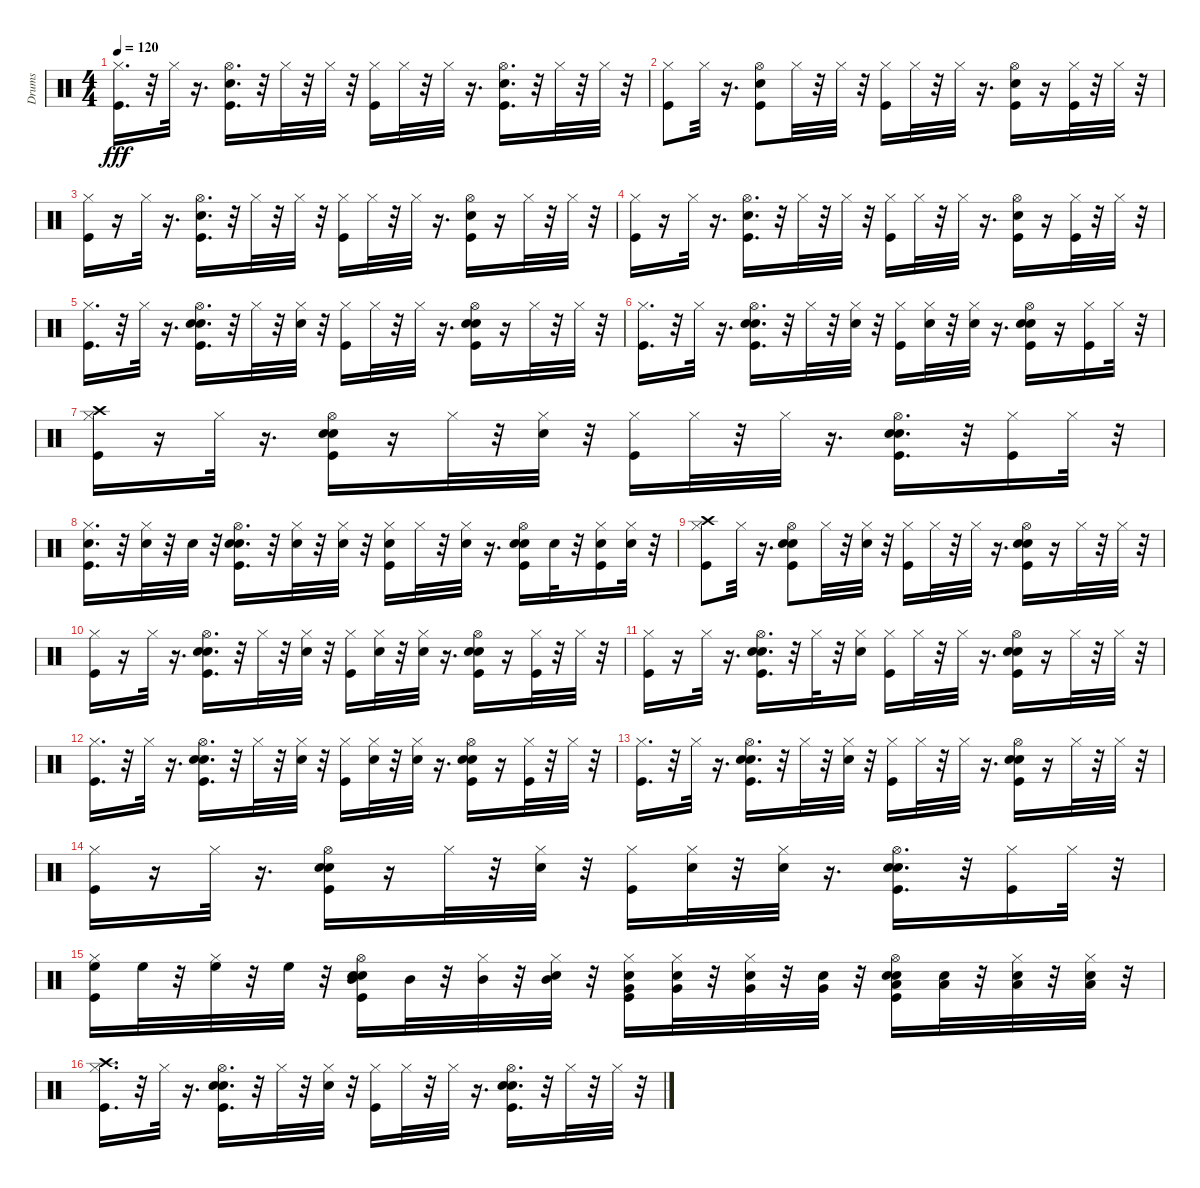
\track ("Drums" "Drums") {instrument percussion}
\staff {score}
\articulation defaults
\ts (4 4)
\tempo 120
\clef neutral
\ks c
("Hi-Hat (closed)" "Kick (hit)").16{d dy fff} r.32 "Hi-Hat (closed)".32 r.16{d} ("Hi-Hat (open)" "Kick (hit)" "Hand Clap (hit)").16{d} r.32 "Hi-Hat (closed)".32 r.32 "Hi-Hat (closed)".32 r.32 ("Hi-Hat (closed)" "Kick (hit)").16 "Hi-Hat (closed)".32 r.32 "Hi-Hat (closed)".32 r.16{d} ("Hi-Hat (open)" "Kick (hit)" "Hand Clap (hit)").16{d} r.32 "Hi-Hat (closed)".32 r.32 "Hi-Hat (closed)".32 r.32 |
("Hi-Hat (closed)" "Kick (hit)").8 "Hi-Hat (closed)".32 r.16{d} ("Hi-Hat (open)" "Kick (hit)" "Hand Clap (hit)").8 "Hi-Hat (closed)".32 r.32 "Hi-Hat (closed)".32 r.32 ("Hi-Hat (closed)" "Kick (hit)").16 "Hi-Hat (closed)".32 r.32 "Hi-Hat (closed)".32 r.16{d} ("Hi-Hat (open)" "Kick (hit)" "Hand Clap (hit)").16 r.16 ("Hi-Hat (closed)" "Kick (hit)").32 r.32 "Hi-Hat (closed)".32 r.32 |
("Hi-Hat (closed)" "Kick (hit)").16 r.16 "Hi-Hat (closed)".32 r.16{d} ("Hi-Hat (open)" "Kick (hit)" "Hand Clap (hit)").16{d} r.32 "Hi-Hat (closed)".32 r.32 "Hi-Hat (closed)".32 r.32 ("Hi-Hat (closed)" "Kick (hit)").16 "Hi-Hat (closed)".32 r.32 "Hi-Hat (closed)".32 r.16{d} ("Hi-Hat (open)" "Kick (hit)" "Hand Clap (hit)").16 r.16 "Hi-Hat (closed)".32 r.32 "Hi-Hat (closed)".32 r.32 |
("Hi-Hat (closed)" "Kick (hit)").16 r.16 "Hi-Hat (closed)".32 r.16{d} ("Hi-Hat (open)" "Kick (hit)" "Hand Clap (hit)").16{d} r.32 "Hi-Hat (closed)".32 r.32 "Hi-Hat (closed)".32 r.32 ("Hi-Hat (closed)" "Kick (hit)").16 "Hi-Hat (closed)".32 r.32 "Hi-Hat (closed)".32 r.16{d} ("Hi-Hat (open)" "Kick (hit)" "Hand Clap (hit)").16 r.16 ("Hi-Hat (closed)" "Kick (hit)").32 r.32 "Hi-Hat (closed)".32 r.32 |
("Hi-Hat (closed)" "Kick (hit)").16{d} r.32 "Hi-Hat (closed)".32 r.16{d} ("Hi-Hat (open)" "Kick (hit)" "Hand Clap (hit)" "Electric Snare (hit)").16{d} r.32 "Hi-Hat (closed)".32 r.32 ("Hi-Hat (closed)" "Electric Snare (hit)").32 r.32 ("Hi-Hat (closed)" "Kick (hit)").16 "Hi-Hat (closed)".32 r.32 "Hi-Hat (closed)".32 r.16{d} ("Hi-Hat (open)" "Kick (hit)" "Hand Clap (hit)" "Electric Snare (hit)").16 r.16 "Hi-Hat (closed)".32 r.32 "Hi-Hat (closed)".32 r.32 |
("Hi-Hat (closed)" "Kick (hit)").16{d} r.32 "Hi-Hat (closed)".32 r.16{d} ("Hi-Hat (open)" "Kick (hit)" "Hand Clap (hit)" "Electric Snare (hit)").16{d} r.32 "Hi-Hat (closed)".32 r.32 ("Hi-Hat (closed)" "Electric Snare (hit)").32 r.32 ("Hi-Hat (closed)" "Kick (hit)").16 ("Hi-Hat (closed)" "Electric Snare (hit)").32 r.32 ("Hi-Hat (closed)" "Electric Snare (hit)").32 r.16{d} ("Hi-Hat (open)" "Kick (hit)" "Hand Clap (hit)" "Electric Snare (hit)").16 r.16 ("Hi-Hat (closed)" "Kick (hit)").16 "Hi-Hat (closed)".32 r.32 |
("Hi-Hat (closed)" "Kick (hit)" "Crash high (hit)").16 r.16 "Hi-Hat (closed)".32 r.16{d} ("Hi-Hat (open)" "Kick (hit)" "Hand Clap (hit)" "Electric Snare (hit)").16 r.16 "Hi-Hat (closed)".32 r.32 ("Hi-Hat (closed)" "Electric Snare (hit)").32 r.32 ("Hi-Hat (closed)" "Kick (hit)").16 "Hi-Hat (closed)".32 r.32 "Hi-Hat (closed)".32 r.16{d} ("Hi-Hat (open)" "Kick (hit)" "Hand Clap (hit)" "Electric Snare (hit)").16{d} r.32 ("Hi-Hat (closed)" "Kick (hit)").16 "Hi-Hat (closed)".32 r.32 |
("Hi-Hat (closed)" "Kick (hit)" "Electric Snare (hit)").16{d} r.32 ("Hi-Hat (closed)" "Electric Snare (hit)").32 r.32 "Electric Snare (hit)".32 r.32 ("Hi-Hat (open)" "Kick (hit)" "Hand Clap (hit)" "Electric Snare (hit)").16{d} r.32 ("Hi-Hat (closed)" "Electric Snare (hit)").32 r.32 ("Hi-Hat (closed)" "Electric Snare (hit)").32 r.32 ("Hi-Hat (closed)" "Kick (hit)" "Electric Snare (hit)").16 "Hi-Hat (closed)".32 r.32 ("Hi-Hat (closed)" "Electric Snare (hit)").32 r.16{d} ("Hi-Hat (open)" "Kick (hit)" "Hand Clap (hit)" "Electric Snare (hit)").16 "Electric Snare (hit)".32 r.32 ("Hi-Hat (closed)" "Kick (hit)" "Electric Snare (hit)").16 ("Hi-Hat (closed)" "Electric Snare (hit)").32 r.32 |
("Hi-Hat (closed)" "Kick (hit)" "Crash high (hit)").8 "Hi-Hat (closed)".32 r.16{d} ("Hi-Hat (open)" "Kick (hit)" "Hand Clap (hit)" "Electric Snare (hit)").8 "Hi-Hat (closed)".32 r.32 ("Hi-Hat (closed)" "Electric Snare (hit)").32 r.32 ("Hi-Hat (closed)" "Kick (hit)").16 "Hi-Hat (closed)".32 r.32 "Hi-Hat (closed)".32 r.16{d} ("Hi-Hat (open)" "Kick (hit)" "Hand Clap (hit)" "Electric Snare (hit)").16 r.16 "Hi-Hat (closed)".32 r.32 "Hi-Hat (closed)".32 r.32 |
("Hi-Hat (closed)" "Kick (hit)").16 r.16 "Hi-Hat (closed)".32 r.16{d} ("Hi-Hat (open)" "Kick (hit)" "Hand Clap (hit)" "Electric Snare (hit)").16{d} r.32 "Hi-Hat (closed)".32 r.32 ("Hi-Hat (closed)" "Electric Snare (hit)").32 r.32 ("Hi-Hat (closed)" "Kick (hit)").16 ("Hi-Hat (closed)" "Electric Snare (hit)").32 r.32 ("Hi-Hat (closed)" "Electric Snare (hit)").32 r.16{d} ("Hi-Hat (open)" "Kick (hit)" "Hand Clap (hit)" "Electric Snare (hit)").16 r.16 ("Hi-Hat (closed)" "Kick (hit)").32 r.32 "Hi-Hat (closed)".32 r.32 |
("Hi-Hat (closed)" "Kick (hit)").16 r.16 "Hi-Hat (closed)".32 r.16{d} ("Hi-Hat (open)" "Kick (hit)" "Hand Clap (hit)" "Electric Snare (hit)").16{d} r.32 "Hi-Hat (closed)".32 r.32 ("Hi-Hat (closed)" "Electric Snare (hit)").16 ("Hi-Hat (closed)" "Kick (hit)").16 "Hi-Hat (closed)".32 r.32 "Hi-Hat (closed)".32 r.16{d} ("Hi-Hat (open)" "Kick (hit)" "Hand Clap (hit)" "Electric Snare (hit)").16 r.16 "Hi-Hat (closed)".32 r.32 "Hi-Hat (closed)".32 r.32 |
("Hi-Hat (closed)" "Kick (hit)").16{d} r.32 "Hi-Hat (closed)".32 r.16{d} ("Hi-Hat (open)" "Kick (hit)" "Hand Clap (hit)" "Electric Snare (hit)").16{d} r.32 "Hi-Hat (closed)".32 r.32 ("Hi-Hat (closed)" "Electric Snare (hit)").32 r.32 ("Hi-Hat (closed)" "Kick (hit)").16 ("Hi-Hat (closed)" "Electric Snare (hit)").32 r.32 ("Hi-Hat (closed)" "Electric Snare (hit)").32 r.16{d} ("Hi-Hat (open)" "Kick (hit)" "Hand Clap (hit)" "Electric Snare (hit)").16 r.16 ("Hi-Hat (closed)" "Kick (hit)").32 r.32 "Hi-Hat (closed)".32 r.32 |
("Hi-Hat (closed)" "Kick (hit)").16{d} r.32 "Hi-Hat (closed)".32 r.16{d} ("Hi-Hat (open)" "Kick (hit)" "Hand Clap (hit)" "Electric Snare (hit)").16{d} r.32 "Hi-Hat (closed)".32 r.32 ("Hi-Hat (closed)" "Electric Snare (hit)").32 r.32 ("Hi-Hat (closed)" "Kick (hit)").16 "Hi-Hat (closed)".32 r.32 "Hi-Hat (closed)".32 r.16{d} ("Hi-Hat (open)" "Kick (hit)" "Hand Clap (hit)" "Electric Snare (hit)").16 r.16 "Hi-Hat (closed)".32 r.32 "Hi-Hat (closed)".32 r.32 |
("Hi-Hat (closed)" "Kick (hit)").16 r.16 "Hi-Hat (closed)".32 r.16{d} ("Hi-Hat (open)" "Kick (hit)" "Hand Clap (hit)" "Electric Snare (hit)").16 r.16 "Hi-Hat (closed)".32 r.32 ("Hi-Hat (closed)" "Electric Snare (hit)").32 r.32 ("Hi-Hat (closed)" "Kick (hit)").16 ("Hi-Hat (closed)" "Electric Snare (hit)").32 r.32 ("Hi-Hat (closed)" "Electric Snare (hit)").32 r.16{d} ("Hi-Hat (open)" "Kick (hit)" "Hand Clap (hit)" "Electric Snare (hit)").16{d} r.32 ("Hi-Hat (closed)" "Kick (hit)").16 "Hi-Hat (closed)".32 r.32 |
("Hi-Hat (closed)" "Kick (hit)" "High Floor Tom (hit)").16 "High Floor Tom (hit)".32 r.32 ("Hi-Hat (closed)" "High Floor Tom (hit)").32 r.32 "High Floor Tom (hit)".32 r.32 ("Hi-Hat (open)" "Kick (hit)" "Mid Tom (hit)" "Hand Clap (hit)" "Electric Snare (hit)").16 "Mid Tom (hit)".32 r.32 ("Hi-Hat (closed)" "Mid Tom (hit)").32 r.32 ("Hi-Hat (closed)" "Electric Snare (hit)" "Mid Tom (hit)").32 r.32 ("Hi-Hat (closed)" "Kick (hit)" "Very Low Tom (hit)" "Electric Snare (hit)").16 ("Hi-Hat (closed)" "Electric Snare (hit)" "Very Low Tom (hit)").32 r.32 ("Hi-Hat (closed)" "Electric Snare (hit)" "Very Low Tom (hit)").32 r.32 ("Very Low Tom (hit)" "Electric Snare (hit)").32 r.32 ("Low Floor Tom (hit)" "Kick (hit)" "Hi-Hat (open)" "Hand Clap (hit)" "Electric Snare (hit)").16 ("Low Floor Tom (hit)" "Electric Snare (hit)").32 r.32 ("Low Floor Tom (hit)" "Electric Snare (hit)" "Hi-Hat (closed)").32 r.32 ("Low Floor Tom (hit)" "Electric Snare (hit)" "Hi-Hat (closed)").32 r.32 |
("Hi-Hat (closed)" "Kick (hit)" "Crash high (hit)").16{d} r.32 "Hi-Hat (closed)".32 r.16{d} ("Hi-Hat (open)" "Kick (hit)" "Hand Clap (hit)" "Electric Snare (hit)").16{d} r.32 "Hi-Hat (closed)".32 r.32 ("Hi-Hat (closed)" "Electric Snare (hit)").32 r.32 ("Hi-Hat (closed)" "Kick (hit)").16 "Hi-Hat (closed)".32 r.32 "Hi-Hat (closed)".32 r.16{d} ("Hi-Hat (open)" "Kick (hit)" "Hand Clap (hit)" "Electric Snare (hit)").16{d} r.32 "Hi-Hat (closed)".32 r.32 "Hi-Hat (closed)".32 r.32
